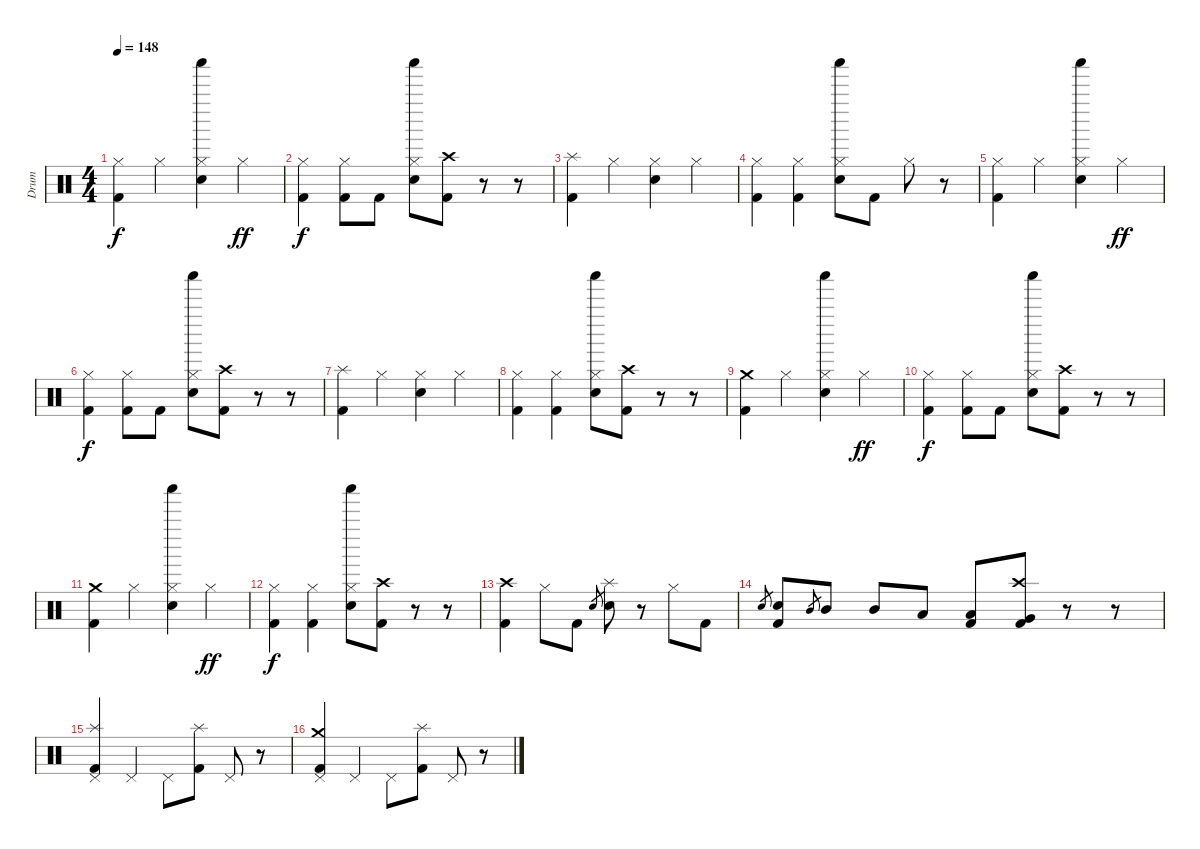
\track ("Drum" "Drum") {instrument percussion}
\staff {score}
\articulation defaults
\ts (4 4)
\tempo 148
\clef neutral
\ks c
("Kick (hit) 2" "Hi-Hat (closed)").4{dy f} "Hi-Hat (closed)".4 ("Shaker (hit)" "Electric Snare (hit)" "Hi-Hat (closed)").4 "Hi-Hat (closed)".4{dy ff} |
("Kick (hit) 2" "Hi-Hat (closed)").4{dy f} ("Kick (hit) 2" "Hi-Hat (closed)").8 "Kick (hit) 2".8 ("Shaker (hit)" "Electric Snare (hit)" "Hi-Hat (closed)").8 ("Kick (hit) 2" "Crash high (hit)").8 r.8 r.8 |
("Splash (hit)" "Kick (hit) 2").4 "Hi-Hat (closed)".4 ("Electric Snare (hit)" "Hi-Hat (closed)").4 "Hi-Hat (closed)".4 |
("Kick (hit) 2" "Hi-Hat (closed)").4 ("Kick (hit) 2" "Hi-Hat (closed)").4 ("Shaker (hit)" "Electric Snare (hit)" "Hi-Hat (closed)").8 "Kick (hit) 2".8 "Hi-Hat (closed)".8 r.8 |
("Kick (hit) 2" "Hi-Hat (closed)").4 "Hi-Hat (closed)".4 ("Shaker (hit)" "Electric Snare (hit)" "Hi-Hat (closed)").4 "Hi-Hat (closed)".4{dy ff} |
("Kick (hit) 2" "Hi-Hat (closed)").4{dy f} ("Kick (hit) 2" "Hi-Hat (closed)").8 "Kick (hit) 2".8 ("Shaker (hit)" "Electric Snare (hit)" "Hi-Hat (closed)").8 ("Kick (hit) 2" "Crash high (hit)").8 r.8 r.8 |
("Splash (hit)" "Kick (hit) 2").4 "Hi-Hat (closed)".4 ("Electric Snare (hit)" "Hi-Hat (closed)").4 "Hi-Hat (closed)".4 |
("Kick (hit) 2" "Hi-Hat (closed)").4 ("Kick (hit) 2" "Hi-Hat (closed)").4 ("Shaker (hit)" "Electric Snare (hit)" "Hi-Hat (closed)").8 ("Kick (hit) 2" "Crash high (hit)").8 r.8 r.8 |
("Kick (hit) 2" "Crash medium (hit)").4 "Hi-Hat (closed)".4 ("Shaker (hit)" "Electric Snare (hit)" "Hi-Hat (closed)").4 "Hi-Hat (closed)".4{dy ff} |
("Kick (hit) 2" "Hi-Hat (closed)").4{dy f} ("Kick (hit) 2" "Hi-Hat (closed)").8 "Kick (hit) 2".8 ("Shaker (hit)" "Electric Snare (hit)" "Hi-Hat (closed)").8 ("Kick (hit) 2" "Crash high (hit)").8 r.8 r.8 |
("Crash medium (hit)" "Kick (hit) 2").4 "Hi-Hat (closed)".4 ("Shaker (hit)" "Electric Snare (hit)" "Hi-Hat (closed)").4 "Hi-Hat (closed)".4{dy ff} |
("Kick (hit) 2" "Hi-Hat (closed)").4{dy f} ("Kick (hit) 2" "Hi-Hat (closed)").4 ("Shaker (hit)" "Electric Snare (hit)" "Hi-Hat (closed)").8 ("Kick (hit) 2" "Crash high (hit)").8 r.8 r.8 |
("Kick (hit) 2" "Crash high (hit)").4 "Hi-Hat (closed)".8 "Kick (hit) 2".8 "Electric Snare (hit)".8{gr} ("Electric Snare (hit)" "Splash (hit)").8 r.8 "Hi-Hat (closed)".8 "Kick (hit) 2".8 |
"Electric Snare (hit)".8{gr} ("Kick (hit) 2" "Electric Snare (hit)").8 "Mid Tom (hit)".8{gr} "Mid Tom (hit)".8 "Mid Tom (hit)".8 "Low Tom (hit)".8 ("Kick (hit) 2" "Low Tom (hit)").8 ("Kick (hit) 2" "Very Low Tom (hit)" "Crash high (hit)").8 r.8 r.8 |
("Pedal Hi-Hat (hit)" "Kick (hit) 2" "Splash (hit)").4 "Pedal Hi-Hat (hit)".4 "Pedal Hi-Hat (hit)".8 ("Kick (hit) 2" "Splash (hit)").8 "Pedal Hi-Hat (hit)".8 r.8 |
("Pedal Hi-Hat (hit)" "Kick (hit) 2" "Crash medium (hit)").4 "Pedal Hi-Hat (hit)".4 "Pedal Hi-Hat (hit)".8 ("Kick (hit) 2" "Splash (hit)").8 "Pedal Hi-Hat (hit)".8 r.8
